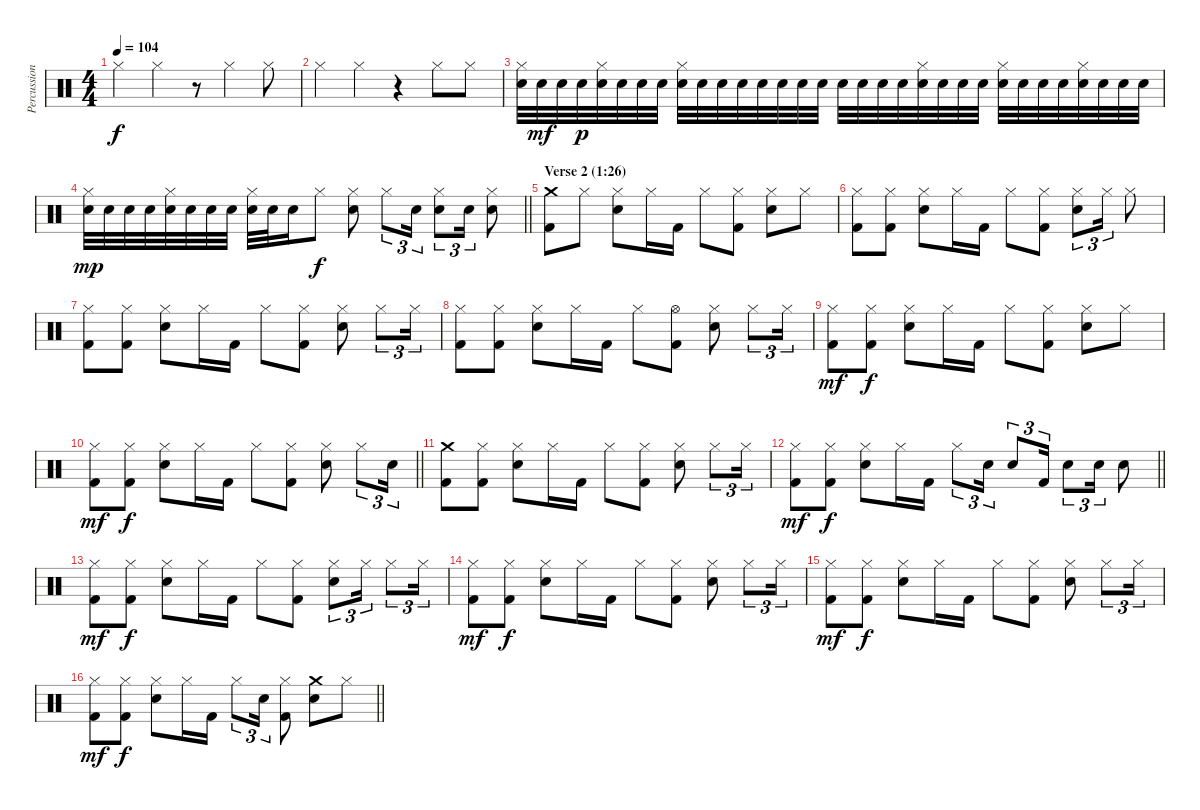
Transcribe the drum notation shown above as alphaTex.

\track ("Percussion" "Percussion") {instrument percussion}
\staff {score}
\articulation defaults
\ts (4 4)
\tempo 104
\clef neutral
\ks c "Hi-Hat (closed)".4{dy f} "Hi-Hat (closed)".4
r.8 "Hi-Hat (closed)".4 "Hi-Hat (closed)".8 |
"Hi-Hat (closed)".4 "Hi-Hat (closed)".4 r.4 "Hi-Hat (closed)".8 "Hi-Hat (closed)".8 |
("Hi-Hat (closed)" "Electric Snare (hit)").32 "Electric Snare (hit)".32{dy mf} "Electric Snare (hit)".32 "Electric Snare (hit)".32{dy p} ("Hi-Hat (closed)" "Electric Snare (hit)").32 "Electric Snare (hit)".32 "Electric Snare (hit)".32 "Electric Snare (hit)".32 ("Hi-Hat (closed)" "Electric Snare (hit)").32 "Electric Snare (hit)".32 "Electric Snare (hit)".32 "Electric Snare (hit)".32 "Electric Snare (hit)".32 "Electric Snare (hit)".32 "Electric Snare (hit)".32 "Electric Snare (hit)".32 "Electric Snare (hit)".32 "Electric Snare (hit)".32 "Electric Snare (hit)".32 "Electric Snare (hit)".32 ("Hi-Hat (closed)" "Electric Snare (hit)").32 "Electric Snare (hit)".32 "Electric Snare (hit)".32 "Electric Snare (hit)".32 ("Hi-Hat (closed)" "Electric Snare (hit)").32 "Electric Snare (hit)".32 "Electric Snare (hit)".32 "Electric Snare (hit)".32 ("Hi-Hat (closed)" "Electric Snare (hit)").32 "Electric Snare (hit)".32 "Electric Snare (hit)".32 "Electric Snare (hit)".32 |
\barLineRight lightlight
("Hi-Hat (closed)" "Electric Snare (hit)").32{dy mp} "Electric Snare (hit)".32 "Electric Snare (hit)".32 "Electric Snare (hit)".32 ("Hi-Hat (closed)" "Electric Snare (hit)").32 "Electric Snare (hit)".32 "Electric Snare (hit)".32 "Electric Snare (hit)".32 ("Hi-Hat (closed)" "Electric Snare (hit)").32 "Electric Snare (hit)".32 "Electric Snare (hit)".16 "Hi-Hat (closed)".8{dy f} ("Hi-Hat (closed)" "Electric Snare (hit)").8 "Hi-Hat (closed)".8{tu (3 2)} "Electric Snare (hit)".16{tu (3 2)} ("Hi-Hat (closed)" "Electric Snare (hit)").8{tu (3 2)} "Snare (hit) 2".16{tu (3 2)} ("Hi-Hat (closed)" "Snare (hit) 2").8 |
\section ("" "Verse 2 (1:26)")
("Crash medium (hit)" "Kick (hit) 2").8 "Hi-Hat (closed)".8 ("Hi-Hat (closed)" "Electric Snare (hit)").8 "Hi-Hat (closed)".16 "Kick (hit) 2".16 "Hi-Hat (closed)".8 ("Hi-Hat (closed)" "Kick (hit) 2").8 ("Hi-Hat (closed)" "Electric Snare (hit)").8 "Hi-Hat (closed)".8 |
("Hi-Hat (closed)" "Kick (hit) 2").8 ("Hi-Hat (closed)" "Kick (hit) 2").8 ("Hi-Hat (closed)" "Electric Snare (hit)").8 "Hi-Hat (closed)".16 "Kick (hit) 2".16 "Hi-Hat (closed)".8 ("Hi-Hat (closed)" "Kick (hit) 2").8 ("Hi-Hat (closed)" "Electric Snare (hit)").8{tu (3 2)} "Hi-Hat (closed)".16{tu (3 2)} "Hi-Hat (closed)".8 |
("Hi-Hat (closed)" "Kick (hit) 2").8 ("Hi-Hat (closed)" "Kick (hit) 2").8 ("Hi-Hat (closed)" "Electric Snare (hit)").8 "Hi-Hat (closed)".16 "Kick (hit) 2".16 "Hi-Hat (closed)".8 ("Hi-Hat (closed)" "Kick (hit) 2").8 ("Hi-Hat (closed)" "Electric Snare (hit)").8 "Hi-Hat (closed)".8{tu (3 2)} "Hi-Hat (closed)".16{tu (3 2)} |
("Hi-Hat (closed)" "Kick (hit) 2").8 ("Hi-Hat (closed)" "Kick (hit) 2").8 ("Hi-Hat (closed)" "Electric Snare (hit)").8 "Hi-Hat (closed)".16 "Kick (hit) 2".16 "Hi-Hat (closed)".8 ("Hi-Hat (open)" "Kick (hit) 2").8 ("Hi-Hat (closed)" "Electric Snare (hit)").8 "Hi-Hat (closed)".8{tu (3 2)} "Hi-Hat (closed)".16{tu (3 2)} |
("Hi-Hat (closed)" "Kick (hit) 2").8{dy mf} ("Hi-Hat (closed)" "Kick (hit) 2").8{dy f} ("Hi-Hat (closed)" "Electric Snare (hit)").8 "Hi-Hat (closed)".16 "Kick (hit) 2".16 "Hi-Hat (closed)".8 ("Hi-Hat (closed)" "Kick (hit) 2").8 ("Hi-Hat (closed)" "Electric Snare (hit)").8 "Hi-Hat (closed)".8 |
\barLineRight lightlight
("Hi-Hat (closed)" "Kick (hit) 2").8{dy mf} ("Hi-Hat (closed)" "Kick (hit) 2").8{dy f} ("Hi-Hat (closed)" "Electric Snare (hit)").8 "Hi-Hat (closed)".16 "Kick (hit) 2".16 "Hi-Hat (closed)".8 ("Hi-Hat (closed)" "Kick (hit) 2").8 ("Hi-Hat (closed)" "Electric Snare (hit)").8 "Hi-Hat (closed)".8{tu (3 2)} "Electric Snare (hit)".16{tu (3 2)} |
("Crash medium (hit)" "Kick (hit) 2").8 ("Hi-Hat (closed)" "Kick (hit) 2").8 ("Hi-Hat (closed)" "Electric Snare (hit)").8 "Hi-Hat (closed)".16 "Kick (hit) 2".16 "Hi-Hat (closed)".8 ("Hi-Hat (closed)" "Kick (hit) 2").8 ("Hi-Hat (closed)" "Electric Snare (hit)").8 "Hi-Hat (closed)".8{tu (3 2)} "Hi-Hat (closed)".16{tu (3 2)} |
\barLineRight lightlight
("Hi-Hat (closed)" "Kick (hit) 2").8{dy mf} ("Hi-Hat (closed)" "Kick (hit) 2").8{dy f} ("Hi-Hat (closed)" "Electric Snare (hit)").8 "Hi-Hat (closed)".16 "Kick (hit) 2".16 "Hi-Hat (closed)".8{tu (3 2)} "Electric Snare (hit)".16{tu (3 2)} "Electric Snare (hit)".8{tu (3 2)} "Kick (hit) 2".16{tu (3 2)} "Electric Snare (hit)".8{tu (3 2)} "Electric Snare (hit)".16{tu (3 2)} "Electric Snare (hit)".8 |
("Hi-Hat (closed)" "Kick (hit) 2").8{dy mf} ("Hi-Hat (closed)" "Kick (hit) 2").8{dy f} ("Hi-Hat (closed)" "Electric Snare (hit)").8 "Hi-Hat (closed)".16 "Kick (hit) 2".16 "Hi-Hat (closed)".8 ("Hi-Hat (closed)" "Kick (hit) 2").8 ("Hi-Hat (closed)" "Electric Snare (hit)").8{tu (3 2)} "Hi-Hat (closed)".16{tu (3 2)} "Hi-Hat (closed)".8{tu (3 2)} "Hi-Hat (closed)".16{tu (3 2)} |
("Hi-Hat (closed)" "Kick (hit) 2").8{dy mf} ("Hi-Hat (closed)" "Kick (hit) 2").8{dy f} ("Hi-Hat (closed)" "Electric Snare (hit)").8 "Hi-Hat (closed)".16 "Kick (hit) 2".16 "Hi-Hat (closed)".8 ("Hi-Hat (closed)" "Kick (hit) 2").8 ("Hi-Hat (closed)" "Electric Snare (hit)").8 "Hi-Hat (closed)".8{tu (3 2)} "Hi-Hat (closed)".16{tu (3 2)} |
("Hi-Hat (closed)" "Kick (hit) 2").8{dy mf} ("Hi-Hat (closed)" "Kick (hit) 2").8{dy f} ("Hi-Hat (closed)" "Electric Snare (hit)").8 "Hi-Hat (closed)".16 "Kick (hit) 2".16 "Hi-Hat (closed)".8 ("Hi-Hat (closed)" "Kick (hit) 2").8 ("Hi-Hat (closed)" "Electric Snare (hit)").8 "Hi-Hat (closed)".8{tu (3 2)} "Hi-Hat (closed)".16{tu (3 2)} |
\barLineRight lightlight
("Hi-Hat (closed)" "Kick (hit) 2").8{dy mf} ("Hi-Hat (closed)" "Kick (hit) 2").8{dy f} ("Hi-Hat (closed)" "Electric Snare (hit)").8 "Hi-Hat (closed)".16 "Kick (hit) 2".16 "Hi-Hat (closed)".8{tu (3 2)} "Snare (hit) 2".16{tu (3 2)} ("Hi-Hat (closed)" "Kick (hit) 2").8 ("Crash medium (hit)" "Electric Snare (hit)").8 "Hi-Hat (closed)".8
